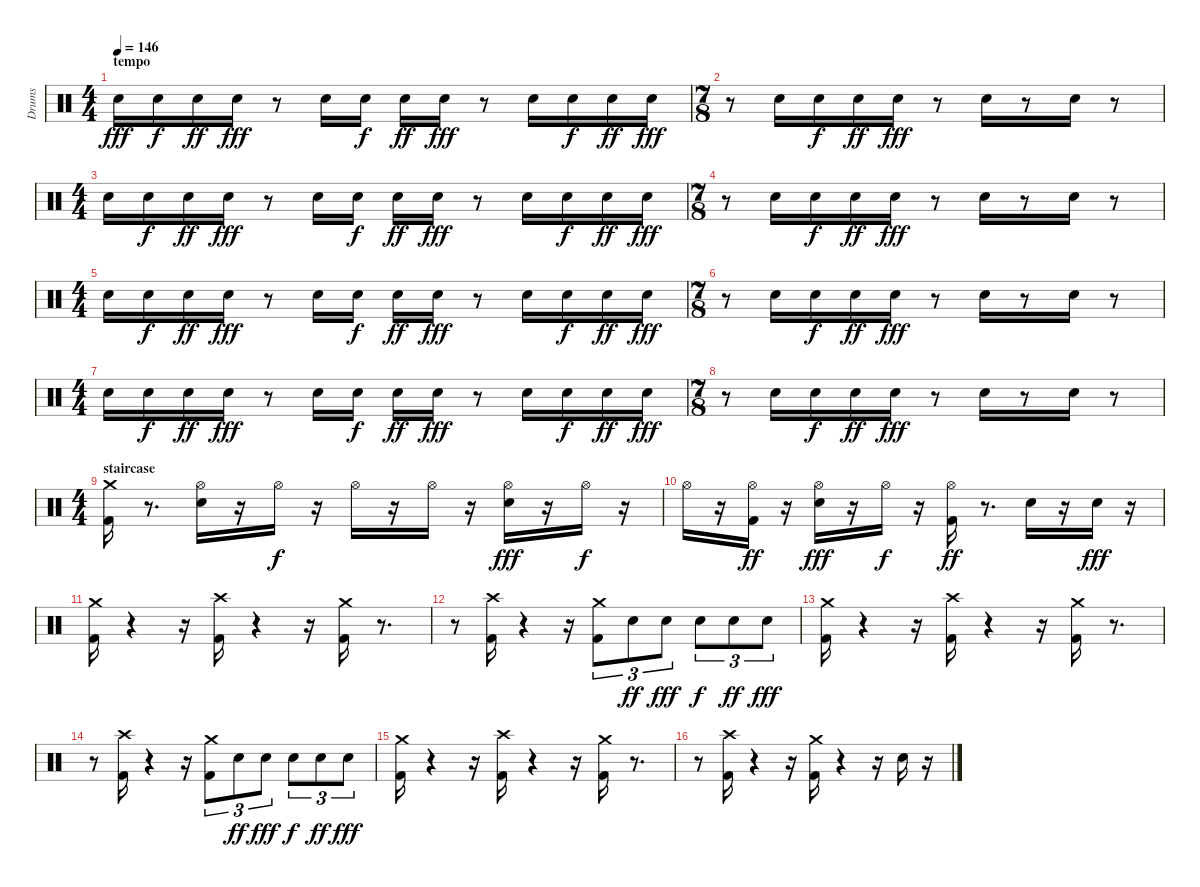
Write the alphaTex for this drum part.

\track ("Drums" "Drums") {instrument percussion}
\staff {score}
\articulation defaults
\ts (4 4)
\section ("" "tempo")
\tempo 146
\clef neutral
\ks c "Snare (hit) 2".16{dy fff} "Snare (hit) 2".16{dy f} "Snare (hit) 2".16{dy ff} "Snare (hit) 2".16{dy fff}
r.8 "Snare (hit) 2".16 "Snare (hit) 2".16{dy f} "Snare (hit) 2".16{dy ff} "Snare (hit) 2".16{dy fff} r.8 "Snare (hit) 2".16 "Snare (hit) 2".16{dy f} "Snare (hit) 2".16{dy ff} "Snare (hit) 2".16{dy fff} |
\ts (7 8)
r.8 "Snare (hit) 2".16 "Snare (hit) 2".16{dy f} "Snare (hit) 2".16{dy ff} "Snare (hit) 2".16{dy fff} r.8 "Snare (hit) 2".16 r.8 "Snare (hit) 2".16 r.8 |
\ts (4 4)
"Snare (hit) 2".16 "Snare (hit) 2".16{dy f} "Snare (hit) 2".16{dy ff} "Snare (hit) 2".16{dy fff} r.8 "Snare (hit) 2".16 "Snare (hit) 2".16{dy f} "Snare (hit) 2".16{dy ff} "Snare (hit) 2".16{dy fff} r.8 "Snare (hit) 2".16 "Snare (hit) 2".16{dy f} "Snare (hit) 2".16{dy ff} "Snare (hit) 2".16{dy fff} |
\ts (7 8)
r.8 "Snare (hit) 2".16 "Snare (hit) 2".16{dy f} "Snare (hit) 2".16{dy ff} "Snare (hit) 2".16{dy fff} r.8 "Snare (hit) 2".16 r.8 "Snare (hit) 2".16 r.8 |
\ts (4 4)
"Snare (hit) 2".16 "Snare (hit) 2".16{dy f} "Snare (hit) 2".16{dy ff} "Snare (hit) 2".16{dy fff} r.8 "Snare (hit) 2".16 "Snare (hit) 2".16{dy f} "Snare (hit) 2".16{dy ff} "Snare (hit) 2".16{dy fff} r.8 "Snare (hit) 2".16 "Snare (hit) 2".16{dy f} "Snare (hit) 2".16{dy ff} "Snare (hit) 2".16{dy fff} |
\ts (7 8)
r.8 "Snare (hit) 2".16 "Snare (hit) 2".16{dy f} "Snare (hit) 2".16{dy ff} "Snare (hit) 2".16{dy fff} r.8 "Snare (hit) 2".16 r.8 "Snare (hit) 2".16 r.8 |
\ts (4 4)
"Snare (hit) 2".16 "Snare (hit) 2".16{dy f} "Snare (hit) 2".16{dy ff} "Snare (hit) 2".16{dy fff} r.8 "Snare (hit) 2".16 "Snare (hit) 2".16{dy f} "Snare (hit) 2".16{dy ff} "Snare (hit) 2".16{dy fff} r.8 "Snare (hit) 2".16 "Snare (hit) 2".16{dy f} "Snare (hit) 2".16{dy ff} "Snare (hit) 2".16{dy fff} |
\ts (7 8)
r.8 "Snare (hit) 2".16 "Snare (hit) 2".16{dy f} "Snare (hit) 2".16{dy ff} "Snare (hit) 2".16{dy fff} r.8 "Snare (hit) 2".16 r.8 "Snare (hit) 2".16 r.8 |
\ts (4 4)
\section ("" "staircase")
("Kick (hit) 2" "Crash medium (hit)").16 r.8{d} ("Snare (hit) 2" "Hi-Hat (open)").16 r.16 "Hi-Hat (open)".16{dy f} r.16 "Hi-Hat (open)".16 r.16 "Hi-Hat (open)".16 r.16 ("Snare (hit) 2" "Hi-Hat (open)").16{dy fff} r.16 "Hi-Hat (open)".16{dy f} r.16 |
"Hi-Hat (open)".16 r.16 ("Kick (hit) 2" "Hi-Hat (open)").16{dy ff} r.16 ("Snare (hit) 2" "Hi-Hat (open)").16{dy fff} r.16 "Hi-Hat (open)".16{dy f} r.16 ("Kick (hit) 2" "Hi-Hat (open)").16{dy ff} r.8{d} "Snare (hit) 2".16 r.16 "Snare (hit) 2".16{dy fff} r.16 |
("Kick (hit) 2" "Crash medium (hit)").16 r.4 r.16 ("Kick (hit) 2" "Crash high (hit)").16 r.4 r.16 ("Kick (hit) 2" "Crash medium (hit)").16 r.8{d} |
r.8 ("Kick (hit) 2" "Crash high (hit)").16 r.4 r.16 ("Kick (hit) 2" "Crash medium (hit)").8{tu (3 2)} "Snare (hit) 2".8{tu (3 2) dy ff} "Snare (hit) 2".8{tu (3 2) dy fff} "Snare (hit) 2".8{tu (3 2) dy f} "Snare (hit) 2".8{tu (3 2) dy ff} "Snare (hit) 2".8{tu (3 2) dy fff} |
("Kick (hit) 2" "Crash medium (hit)").16 r.4 r.16 ("Kick (hit) 2" "Crash high (hit)").16 r.4 r.16 ("Kick (hit) 2" "Crash medium (hit)").16 r.8{d} |
r.8 ("Kick (hit) 2" "Crash high (hit)").16 r.4 r.16 ("Kick (hit) 2" "Crash medium (hit)").8{tu (3 2)} "Snare (hit) 2".8{tu (3 2) dy ff} "Snare (hit) 2".8{tu (3 2) dy fff} "Snare (hit) 2".8{tu (3 2) dy f} "Snare (hit) 2".8{tu (3 2) dy ff} "Snare (hit) 2".8{tu (3 2) dy fff} |
("Kick (hit) 2" "Crash medium (hit)").16 r.4 r.16 ("Kick (hit) 2" "Crash high (hit)").16 r.4 r.16 ("Kick (hit) 2" "Crash medium (hit)").16 r.8{d} |
r.8 ("Kick (hit) 2" "Crash high (hit)").16 r.4 r.16 ("Kick (hit) 2" "Crash medium (hit)").16 r.4 r.16 "Snare (hit) 2".16 r.16
